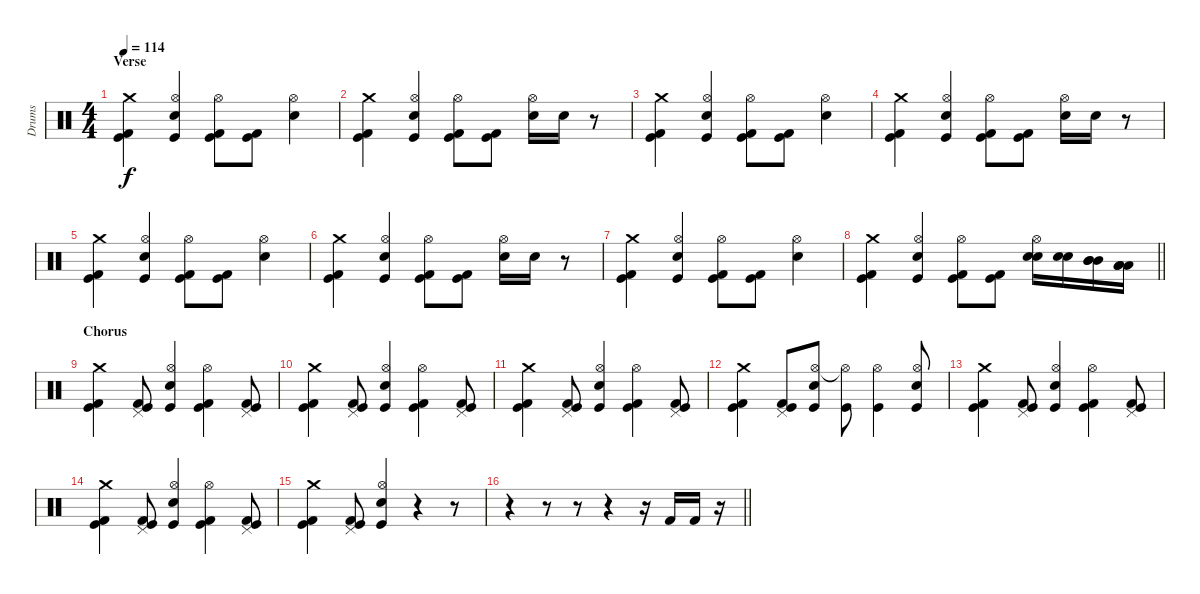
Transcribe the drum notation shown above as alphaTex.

\track ("Drums" "Drums") {instrument percussion}
\staff {score}
\articulation defaults
\ts (4 4)
\section ("" "Verse")
\tempo 114
\clef neutral
\ks c
("Crash medium (hit)" "Kick (hit) 2" "Kick (hit)").4{dy f} ("Hi-Hat (open)" "Snare (hit) 2" "Kick (hit)").4 ("Hi-Hat (open)" "Kick (hit) 2" "Kick (hit)").8 ("Kick (hit) 2" "Kick (hit)").8 ("Hi-Hat (open)" "Snare (hit) 2").4 |
("Crash medium (hit)" "Kick (hit) 2" "Kick (hit)").4 ("Hi-Hat (open)" "Snare (hit) 2" "Kick (hit)").4 ("Hi-Hat (open)" "Kick (hit) 2" "Kick (hit)").8 ("Kick (hit) 2" "Kick (hit)").8 ("Hi-Hat (open)" "Snare (hit) 2").16 "Snare (hit) 2".16 r.8 |
("Crash medium (hit)" "Kick (hit) 2" "Kick (hit)").4 ("Hi-Hat (open)" "Snare (hit) 2" "Kick (hit)").4 ("Hi-Hat (open)" "Kick (hit) 2" "Kick (hit)").8 ("Kick (hit) 2" "Kick (hit)").8 ("Hi-Hat (open)" "Snare (hit) 2").4 |
("Crash medium (hit)" "Kick (hit) 2" "Kick (hit)").4 ("Hi-Hat (open)" "Snare (hit) 2" "Kick (hit)").4 ("Hi-Hat (open)" "Kick (hit) 2" "Kick (hit)").8 ("Kick (hit) 2" "Kick (hit)").8 ("Hi-Hat (open)" "Snare (hit) 2").16 "Snare (hit) 2".16 r.8 |
("Crash medium (hit)" "Kick (hit) 2" "Kick (hit)").4 ("Hi-Hat (open)" "Snare (hit) 2" "Kick (hit)").4 ("Hi-Hat (open)" "Kick (hit) 2" "Kick (hit)").8 ("Kick (hit) 2" "Kick (hit)").8 ("Hi-Hat (open)" "Snare (hit) 2").4 |
("Crash medium (hit)" "Kick (hit) 2" "Kick (hit)").4 ("Hi-Hat (open)" "Snare (hit) 2" "Kick (hit)").4 ("Hi-Hat (open)" "Kick (hit) 2" "Kick (hit)").8 ("Kick (hit) 2" "Kick (hit)").8 ("Hi-Hat (open)" "Snare (hit) 2").16 "Snare (hit) 2".16 r.8 |
("Crash medium (hit)" "Kick (hit) 2" "Kick (hit)").4 ("Hi-Hat (open)" "Snare (hit) 2" "Kick (hit)").4 ("Hi-Hat (open)" "Kick (hit) 2" "Kick (hit)").8 ("Kick (hit) 2" "Kick (hit)").8 ("Hi-Hat (open)" "Snare (hit) 2").4 |
\barLineRight lightlight
("Crash medium (hit)" "Kick (hit) 2" "Kick (hit)").4 ("Hi-Hat (open)" "Snare (hit) 2" "Kick (hit)").4 ("Hi-Hat (open)" "Kick (hit) 2" "Kick (hit)").8 ("Kick (hit) 2" "Kick (hit)").8 ("Hi-Hat (open)" "Snare (hit) 2" "Snare (hit) 2").16 ("Snare (hit) 2" "Snare (hit) 2").16 ("Mid Tom (hit)" "Mid Tom (hit)" "Mid Tom (hit)").16 ("Low Tom (hit)" "Low Tom (hit)" "Low Tom (hit)").16 |
\section ("" "Chorus")
("Crash medium (hit)" "Kick (hit) 2" "Kick (hit)").4 ("Pedal Hi-Hat (hit)" "Kick (hit) 2" "Kick (hit)").8 ("Hi-Hat (open)" "Snare (hit) 2" "Kick (hit)").4 ("Hi-Hat (open)" "Kick (hit) 2" "Kick (hit)").4 ("Pedal Hi-Hat (hit)" "Kick (hit) 2" "Kick (hit)").8 |
("Crash medium (hit)" "Kick (hit) 2" "Kick (hit)").4 ("Pedal Hi-Hat (hit)" "Kick (hit) 2" "Kick (hit)").8 ("Hi-Hat (open)" "Snare (hit) 2" "Kick (hit)").4 ("Hi-Hat (open)" "Kick (hit) 2" "Kick (hit)").4 ("Pedal Hi-Hat (hit)" "Kick (hit) 2" "Kick (hit)").8 |
("Crash medium (hit)" "Kick (hit) 2" "Kick (hit)").4 ("Pedal Hi-Hat (hit)" "Kick (hit) 2" "Kick (hit)").8 ("Hi-Hat (open)" "Snare (hit) 2" "Kick (hit)").4 ("Hi-Hat (open)" "Kick (hit) 2" "Kick (hit)").4 ("Pedal Hi-Hat (hit)" "Kick (hit) 2" "Kick (hit)").8 |
("Crash medium (hit)" "Kick (hit) 2" "Kick (hit)").4 ("Pedal Hi-Hat (hit)" "Kick (hit) 2" "Kick (hit)").8 ("Hi-Hat (open)" "Snare (hit) 2" "Kick (hit)").8 ("Hi-Hat (open)"{t} "Kick (hit)").8 ("Hi-Hat (open)" "Kick (hit)").4 ("Hi-Hat (open)" "Snare (hit) 2" "Kick (hit)").8 |
("Crash medium (hit)" "Kick (hit) 2" "Kick (hit)").4 ("Pedal Hi-Hat (hit)" "Kick (hit) 2" "Kick (hit)").8 ("Hi-Hat (open)" "Snare (hit) 2" "Kick (hit)").4 ("Hi-Hat (open)" "Kick (hit) 2" "Kick (hit)").4 ("Pedal Hi-Hat (hit)" "Kick (hit) 2" "Kick (hit)").8 |
("Crash medium (hit)" "Kick (hit) 2" "Kick (hit)").4 ("Pedal Hi-Hat (hit)" "Kick (hit) 2" "Kick (hit)").8 ("Hi-Hat (open)" "Snare (hit) 2" "Kick (hit)").4 ("Hi-Hat (open)" "Kick (hit) 2" "Kick (hit)").4 ("Pedal Hi-Hat (hit)" "Kick (hit) 2" "Kick (hit)").8 |
("Crash medium (hit)" "Kick (hit) 2" "Kick (hit)").4 ("Pedal Hi-Hat (hit)" "Kick (hit) 2" "Kick (hit)").8 ("Hi-Hat (open)" "Snare (hit) 2" "Kick (hit)").4 r.4 r.8 |
\barLineRight lightlight
r.4 r.8 r.8 r.4 r.16 "Kick (hit) 2".16 "Kick (hit) 2".16 r.16
